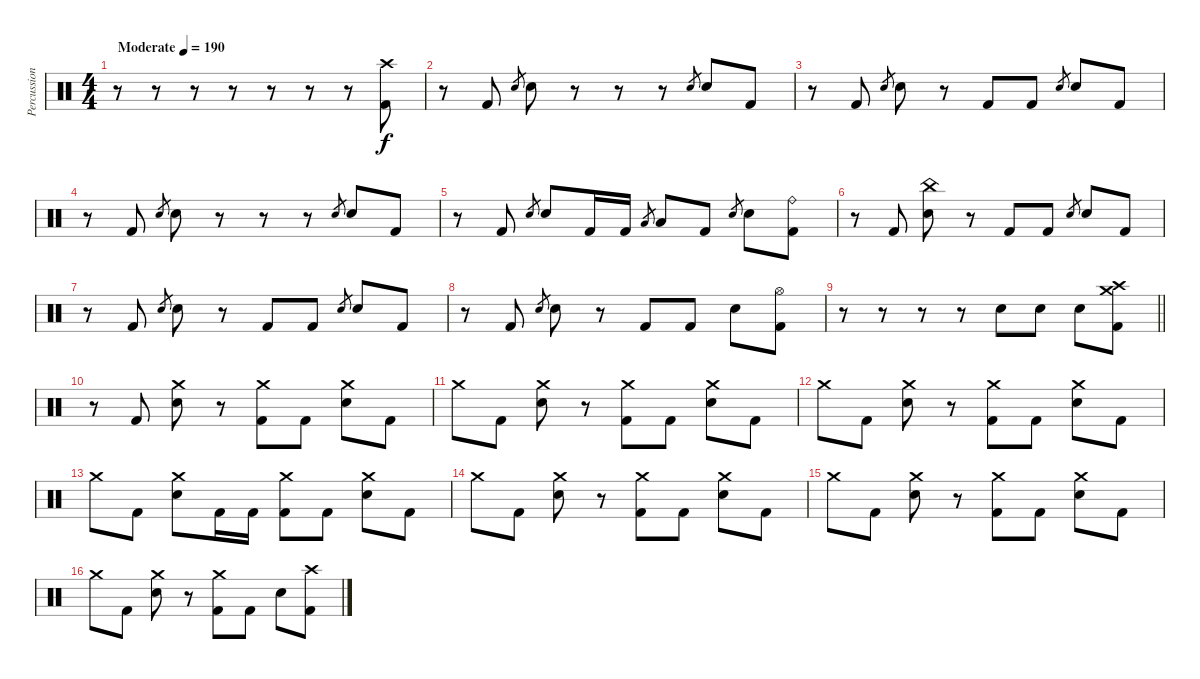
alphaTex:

\track ("Percussion" "Percussion") {instrument percussion}
\staff {score}
\articulation defaults
\ts (4 4)
\tempo (190 "Moderate")
\clef neutral
\ks c
r.8{dy f} r.8 r.8 r.8 r.8 r.8 r.8 ("Crash high (hit)" "Kick (hit) 2").8 |
r.8 "Kick (hit) 2".8 "Snare (hit) 2".8{gr} "Snare (hit) 2".8 r.8 r.8 r.8 "Snare (hit) 2".8{gr} "Snare (hit) 2".8 "Kick (hit) 2".8 |
r.8 "Kick (hit) 2".8 "Snare (hit) 2".8{gr} "Snare (hit) 2".8 r.8 "Kick (hit) 2".8 "Kick (hit) 2".8 "Snare (hit) 2".8{gr} "Snare (hit) 2".8 "Kick (hit) 2".8 |
r.8 "Kick (hit) 2".8 "Snare (hit) 2".8{gr} "Snare (hit) 2".8 r.8 r.8 r.8 "Snare (hit) 2".8{gr} "Snare (hit) 2".8 "Kick (hit) 2".8 |
r.8 "Kick (hit) 2".8 "Snare (hit) 2".8{gr} "Snare (hit) 2".8 "Kick (hit) 2".16 "Kick (hit) 2".16 "Low Tom (hit)".8{gr} "Low Tom (hit)".8 "Kick (hit) 2".8 "Snare (hit) 2".8{gr} "Snare (hit) 2".8 ("Ride (bell)" "Kick (hit) 2").8 |
r.8 "Kick (hit) 2".8 ("China (hit)" "Snare (hit) 2").8 r.8 "Kick (hit) 2".8 "Kick (hit) 2".8 "Snare (hit) 2".8{gr} "Snare (hit) 2".8 "Kick (hit) 2".8 |
r.8 "Kick (hit) 2".8 "Snare (hit) 2".8{gr} "Snare (hit) 2".8 r.8 "Kick (hit) 2".8 "Kick (hit) 2".8 "Snare (hit) 2".8{gr} "Snare (hit) 2".8 "Kick (hit) 2".8 |
r.8 "Kick (hit) 2".8 "Snare (hit) 2".8{gr} "Snare (hit) 2".8 r.8 "Kick (hit) 2".8 "Kick (hit) 2".8 "Snare (hit) 2".8 ("Hi-Hat (open)" "Kick (hit) 2").8 |
\barLineRight lightlight
r.8 r.8 r.8 r.8 "Snare (hit) 2".8 "Snare (hit) 2".8 "Snare (hit) 2".8 ("Crash medium (hit)" "Crash high (hit)" "Kick (hit) 2").8 |
\section ("" "")
r.8 "Kick (hit) 2".8 ("Crash medium (hit)" "Snare (hit) 2").8 r.8 ("Crash medium (hit)" "Kick (hit) 2").8 "Kick (hit) 2".8 ("Crash medium (hit)" "Snare (hit) 2").8 "Kick (hit) 2".8 |
"Crash medium (hit)".8 "Kick (hit) 2".8 ("Crash medium (hit)" "Snare (hit) 2").8 r.8 ("Crash medium (hit)" "Kick (hit) 2").8 "Kick (hit) 2".8 ("Crash medium (hit)" "Snare (hit) 2").8 "Kick (hit) 2".8 |
"Crash medium (hit)".8 "Kick (hit) 2".8 ("Crash medium (hit)" "Snare (hit) 2").8 r.8 ("Crash medium (hit)" "Kick (hit) 2").8 "Kick (hit) 2".8 ("Crash medium (hit)" "Snare (hit) 2").8 "Kick (hit) 2".8 |
"Crash medium (hit)".8 "Kick (hit) 2".8 ("Crash medium (hit)" "Snare (hit) 2").8 "Kick (hit) 2".16 "Kick (hit) 2".16 ("Crash medium (hit)" "Kick (hit) 2").8 "Kick (hit) 2".8 ("Crash medium (hit)" "Snare (hit) 2").8 "Kick (hit) 2".8 |
"Crash medium (hit)".8 "Kick (hit) 2".8 ("Crash medium (hit)" "Snare (hit) 2").8 r.8 ("Crash medium (hit)" "Kick (hit) 2").8 "Kick (hit) 2".8 ("Crash medium (hit)" "Snare (hit) 2").8 "Kick (hit) 2".8 |
"Crash medium (hit)".8 "Kick (hit) 2".8 ("Crash medium (hit)" "Snare (hit) 2").8 r.8 ("Crash medium (hit)" "Kick (hit) 2").8 "Kick (hit) 2".8 ("Crash medium (hit)" "Snare (hit) 2").8 "Kick (hit) 2".8 |
"Crash medium (hit)".8 "Kick (hit) 2".8 ("Crash medium (hit)" "Snare (hit) 2").8 r.8 ("Crash medium (hit)" "Kick (hit) 2").8 "Kick (hit) 2".8 "Snare (hit) 2".8 ("Crash high (hit)" "Kick (hit) 2").8
